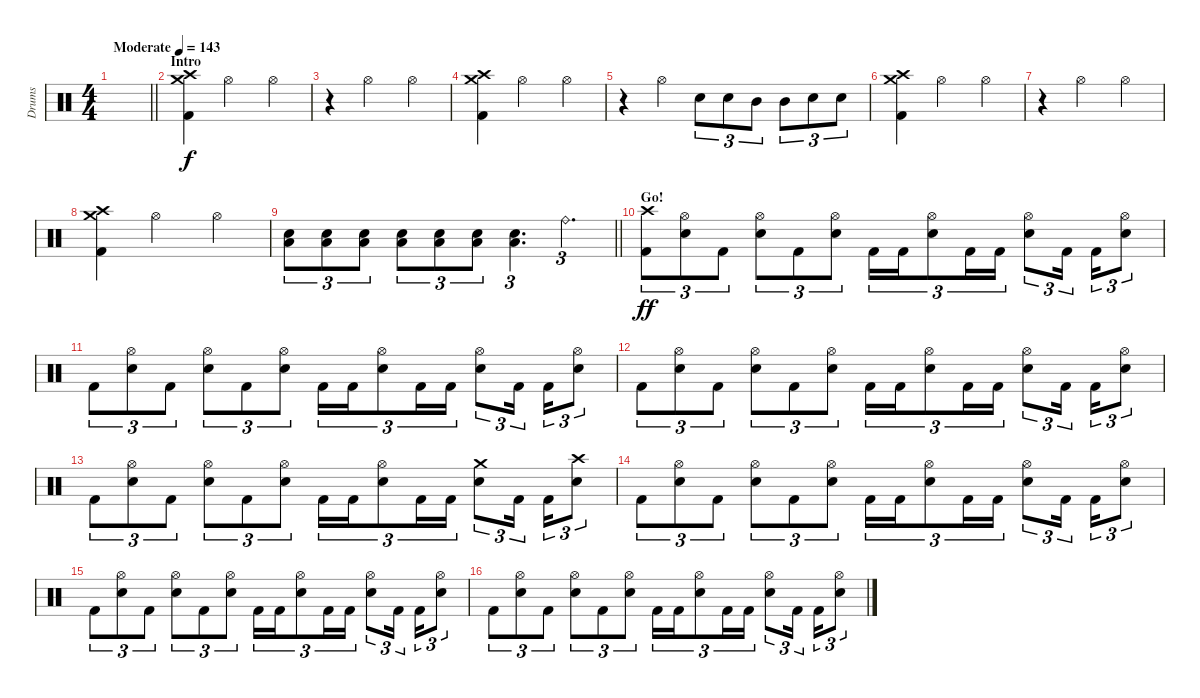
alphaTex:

\track ("Drums" "Drums") {instrument percussion}
\staff {score}
\articulation defaults
\ts (4 4)
\tempo (143 "Moderate")
\clef neutral
\barLineRight lightlight
\ks c
|
\section ("" "Intro")
("Crash high (hit)" "Crash medium (hit)" "Kick (hit) 2").4 "Hi-Hat (open)".2 "Hi-Hat (open)".4 |
r.4 "Hi-Hat (open)".2 "Hi-Hat (open)".4 |
("Crash high (hit)" "Crash medium (hit)" "Kick (hit) 2").4 "Hi-Hat (open)".2 "Hi-Hat (open)".4 |
r.4 "Hi-Hat (open)".4 "Snare (hit) 2".8{tu (3 2)} "Snare (hit) 2".8{tu (3 2)} "Mid Tom (hit)".8{tu (3 2)} "Mid Tom (hit)".8{tu (3 2)} "Snare (hit) 2".8{tu (3 2)} "Snare (hit) 2".8{tu (3 2)} |
("Crash high (hit)" "Crash medium (hit)" "Kick (hit) 2").4 "Hi-Hat (open)".2 "Hi-Hat (open)".4 |
r.4 "Hi-Hat (open)".2 "Hi-Hat (open)".4 |
("Crash high (hit)" "Crash medium (hit)" "Kick (hit) 2").4 "Hi-Hat (open)".2 "Hi-Hat (open)".4 |
\barLineRight lightlight
("Snare (hit) 2" "Low Floor Tom (hit)").8{tu (3 2)} ("Snare (hit) 2" "Low Floor Tom (hit)").8{tu (3 2)} ("Snare (hit) 2" "Low Floor Tom (hit)").8{tu (3 2)} ("Snare (hit) 2" "Low Floor Tom (hit)").8{tu (3 2)} ("Snare (hit) 2" "Low Floor Tom (hit)").8{tu (3 2)} ("Snare (hit) 2" "Low Floor Tom (hit)").8{tu (3 2)} ("Snare (hit) 2" "Low Floor Tom (hit)").4{d tu (3 2)} "Ride (bell)".4{d tu (3 2)} |
\section ("" "Go!")
("Crash high (hit)" "Kick (hit) 2").8{tu (3 2) dy ff} ("Hi-Hat (open)" "Snare (hit) 2").8{tu (3 2)} "Kick (hit) 2".8{tu (3 2)} ("Hi-Hat (open)" "Snare (hit) 2").8{tu (3 2)} "Kick (hit) 2".8{tu (3 2)} ("Hi-Hat (open)" "Snare (hit) 2").8{tu (3 2)} "Kick (hit) 2".16{tu (3 2)} "Kick (hit) 2".16{tu (3 2)} ("Hi-Hat (open)" "Snare (hit) 2").8{tu (3 2)} "Kick (hit) 2".16{tu (3 2)} "Kick (hit) 2".16{tu (3 2)} ("Hi-Hat (open)" "Snare (hit) 2").8{tu (3 2)} "Kick (hit) 2".16{tu (3 2) beam splitsecondary} "Kick (hit) 2".16{tu (3 2)} ("Hi-Hat (open)" "Snare (hit) 2").8{tu (3 2)} |
"Kick (hit) 2".8{tu (3 2)} ("Hi-Hat (open)" "Snare (hit) 2").8{tu (3 2)} "Kick (hit) 2".8{tu (3 2)} ("Hi-Hat (open)" "Snare (hit) 2").8{tu (3 2)} "Kick (hit) 2".8{tu (3 2)} ("Hi-Hat (open)" "Snare (hit) 2").8{tu (3 2)} "Kick (hit) 2".16{tu (3 2)} "Kick (hit) 2".16{tu (3 2)} ("Hi-Hat (open)" "Snare (hit) 2").8{tu (3 2)} "Kick (hit) 2".16{tu (3 2)} "Kick (hit) 2".16{tu (3 2)} ("Hi-Hat (open)" "Snare (hit) 2").8{tu (3 2)} "Kick (hit) 2".16{tu (3 2) beam splitsecondary} "Kick (hit) 2".16{tu (3 2)} ("Hi-Hat (open)" "Snare (hit) 2").8{tu (3 2)} |
"Kick (hit) 2".8{tu (3 2)} ("Hi-Hat (open)" "Snare (hit) 2").8{tu (3 2)} "Kick (hit) 2".8{tu (3 2)} ("Hi-Hat (open)" "Snare (hit) 2").8{tu (3 2)} "Kick (hit) 2".8{tu (3 2)} ("Hi-Hat (open)" "Snare (hit) 2").8{tu (3 2)} "Kick (hit) 2".16{tu (3 2)} "Kick (hit) 2".16{tu (3 2)} ("Hi-Hat (open)" "Snare (hit) 2").8{tu (3 2)} "Kick (hit) 2".16{tu (3 2)} "Kick (hit) 2".16{tu (3 2)} ("Hi-Hat (open)" "Snare (hit) 2").8{tu (3 2)} "Kick (hit) 2".16{tu (3 2) beam splitsecondary} "Kick (hit) 2".16{tu (3 2)} ("Hi-Hat (open)" "Snare (hit) 2").8{tu (3 2)} |
"Kick (hit) 2".8{tu (3 2)} ("Hi-Hat (open)" "Snare (hit) 2").8{tu (3 2)} "Kick (hit) 2".8{tu (3 2)} ("Hi-Hat (open)" "Snare (hit) 2").8{tu (3 2)} "Kick (hit) 2".8{tu (3 2)} ("Hi-Hat (open)" "Snare (hit) 2").8{tu (3 2)} "Kick (hit) 2".16{tu (3 2)} "Kick (hit) 2".16{tu (3 2)} ("Hi-Hat (open)" "Snare (hit) 2").8{tu (3 2)} "Kick (hit) 2".16{tu (3 2)} "Kick (hit) 2".16{tu (3 2)} ("Crash medium (hit)" "Snare (hit) 2").8{tu (3 2)} "Kick (hit) 2".16{tu (3 2) beam splitsecondary} "Kick (hit) 2".16{tu (3 2)} ("Crash high (hit)" "Snare (hit) 2").8{tu (3 2)} |
"Kick (hit) 2".8{tu (3 2)} ("Hi-Hat (open)" "Snare (hit) 2").8{tu (3 2)} "Kick (hit) 2".8{tu (3 2)} ("Hi-Hat (open)" "Snare (hit) 2").8{tu (3 2)} "Kick (hit) 2".8{tu (3 2)} ("Hi-Hat (open)" "Snare (hit) 2").8{tu (3 2)} "Kick (hit) 2".16{tu (3 2)} "Kick (hit) 2".16{tu (3 2)} ("Hi-Hat (open)" "Snare (hit) 2").8{tu (3 2)} "Kick (hit) 2".16{tu (3 2)} "Kick (hit) 2".16{tu (3 2)} ("Hi-Hat (open)" "Snare (hit) 2").8{tu (3 2)} "Kick (hit) 2".16{tu (3 2) beam splitsecondary} "Kick (hit) 2".16{tu (3 2)} ("Hi-Hat (open)" "Snare (hit) 2").8{tu (3 2)} |
"Kick (hit) 2".8{tu (3 2)} ("Hi-Hat (open)" "Snare (hit) 2").8{tu (3 2)} "Kick (hit) 2".8{tu (3 2)} ("Hi-Hat (open)" "Snare (hit) 2").8{tu (3 2)} "Kick (hit) 2".8{tu (3 2)} ("Hi-Hat (open)" "Snare (hit) 2").8{tu (3 2)} "Kick (hit) 2".16{tu (3 2)} "Kick (hit) 2".16{tu (3 2)} ("Hi-Hat (open)" "Snare (hit) 2").8{tu (3 2)} "Kick (hit) 2".16{tu (3 2)} "Kick (hit) 2".16{tu (3 2)} ("Hi-Hat (open)" "Snare (hit) 2").8{tu (3 2)} "Kick (hit) 2".16{tu (3 2) beam splitsecondary} "Kick (hit) 2".16{tu (3 2)} ("Hi-Hat (open)" "Snare (hit) 2").8{tu (3 2)} |
"Kick (hit) 2".8{tu (3 2)} ("Hi-Hat (open)" "Snare (hit) 2").8{tu (3 2)} "Kick (hit) 2".8{tu (3 2)} ("Hi-Hat (open)" "Snare (hit) 2").8{tu (3 2)} "Kick (hit) 2".8{tu (3 2)} ("Hi-Hat (open)" "Snare (hit) 2").8{tu (3 2)} "Kick (hit) 2".16{tu (3 2)} "Kick (hit) 2".16{tu (3 2)} ("Hi-Hat (open)" "Snare (hit) 2").8{tu (3 2)} "Kick (hit) 2".16{tu (3 2)} "Kick (hit) 2".16{tu (3 2)} ("Hi-Hat (open)" "Snare (hit) 2").8{tu (3 2)} "Kick (hit) 2".16{tu (3 2) beam splitsecondary} "Kick (hit) 2".16{tu (3 2)} ("Hi-Hat (open)" "Snare (hit) 2").8{tu (3 2)}
